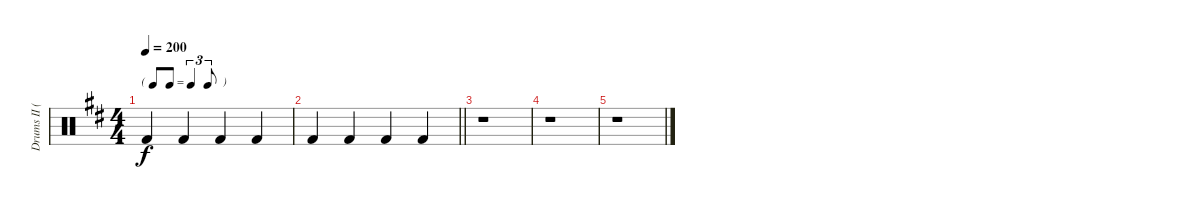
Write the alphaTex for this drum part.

\track ("Drums II (Ruka)" "Drums II (") {instrument percussion}
\staff {score}
\articulation defaults
\ts (4 4)
\tf triplet8th
\tempo 200
\clef neutral
\ks d "Kick (hit) 2".4{dy f} "Kick (hit) 2".4 "Kick (hit) 2".4 "Kick (hit) 2".4
|
\barLineRight lightlight "Kick (hit) 2".4 "Kick (hit) 2".4 "Kick (hit) 2".4 "Kick (hit) 2".4
|
r.1 |
r.1 |
r.1
